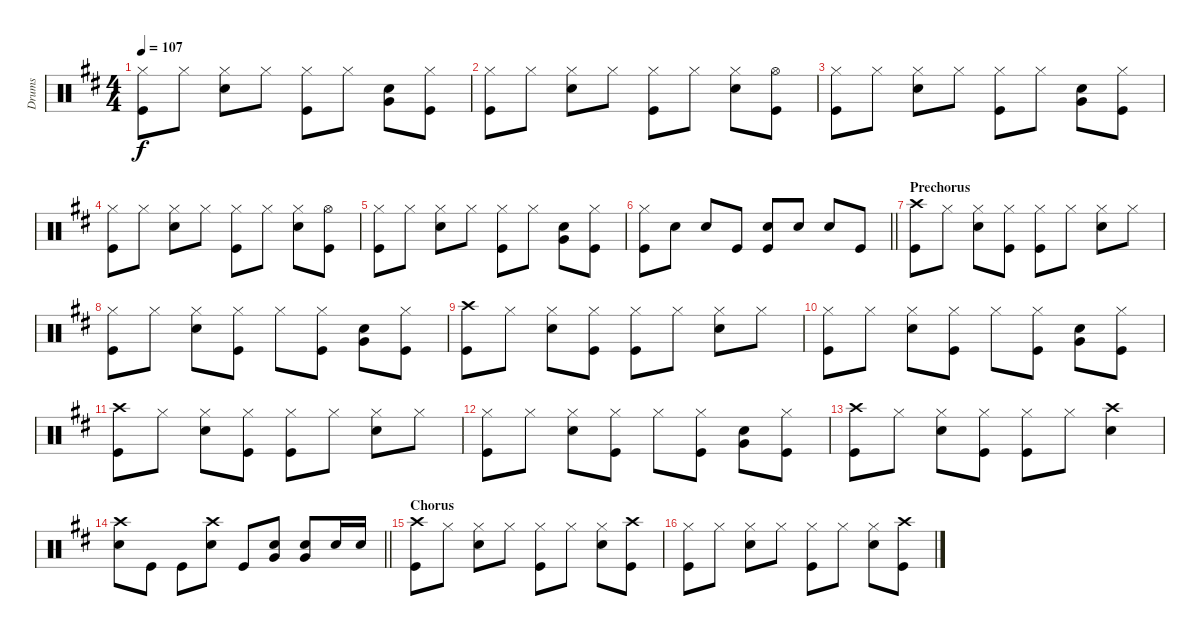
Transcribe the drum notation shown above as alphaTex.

\track ("Drums" "Drums") {instrument percussion}
\staff {score}
\articulation defaults
\ts (4 4)
\tempo 107
\clef neutral
\ks d
("Hi-Hat (closed)" "Kick (hit)").8{dy f} "Hi-Hat (closed)".8 ("Hi-Hat (closed)" "Snare (hit) 2").8 "Hi-Hat (closed)".8 ("Hi-Hat (closed)" "Kick (hit)").8 "Hi-Hat (closed)".8 ("Snare (hit) 2" "Very Low Tom (hit)").8 ("Hi-Hat (closed)" "Kick (hit)").8 |
("Hi-Hat (closed)" "Kick (hit)").8 "Hi-Hat (closed)".8 ("Hi-Hat (closed)" "Snare (hit) 2").8 "Hi-Hat (closed)".8 ("Hi-Hat (closed)" "Kick (hit)").8 "Hi-Hat (closed)".8 ("Hi-Hat (closed)" "Snare (hit) 2").8 ("Hi-Hat (open)" "Kick (hit)").8 |
("Hi-Hat (closed)" "Kick (hit)").8 "Hi-Hat (closed)".8 ("Hi-Hat (closed)" "Snare (hit) 2").8 "Hi-Hat (closed)".8 ("Hi-Hat (closed)" "Kick (hit)").8 "Hi-Hat (closed)".8 ("Snare (hit) 2" "Very Low Tom (hit)").8 ("Hi-Hat (closed)" "Kick (hit)").8 |
("Hi-Hat (closed)" "Kick (hit)").8 "Hi-Hat (closed)".8 ("Hi-Hat (closed)" "Snare (hit) 2").8 "Hi-Hat (closed)".8 ("Hi-Hat (closed)" "Kick (hit)").8 "Hi-Hat (closed)".8 ("Hi-Hat (closed)" "Snare (hit) 2").8 ("Hi-Hat (open)" "Kick (hit)").8 |
("Hi-Hat (closed)" "Kick (hit)").8 "Hi-Hat (closed)".8 ("Hi-Hat (closed)" "Snare (hit) 2").8 "Hi-Hat (closed)".8 ("Hi-Hat (closed)" "Kick (hit)").8 "Hi-Hat (closed)".8 ("Snare (hit) 2" "Very Low Tom (hit)").8 ("Hi-Hat (closed)" "Kick (hit)").8 |
\barLineRight lightlight
("Hi-Hat (closed)" "Kick (hit)").8 "Snare (hit) 2".8 "Snare (hit) 2".8 "Kick (hit)".8 ("Snare (hit) 2" "Kick (hit)").8 "Snare (hit) 2".8 "Snare (hit) 2".8 "Kick (hit)".8 |
\section ("" "Prechorus")
("Crash high (hit)" "Kick (hit)").8 "Hi-Hat (closed)".8 ("Hi-Hat (closed)" "Snare (hit) 2").8 ("Hi-Hat (closed)" "Kick (hit)").8 ("Hi-Hat (closed)" "Kick (hit)").8 "Hi-Hat (closed)".8 ("Hi-Hat (closed)" "Snare (hit) 2").8 "Hi-Hat (closed)".8 |
("Hi-Hat (closed)" "Kick (hit)").8 "Hi-Hat (closed)".8 ("Hi-Hat (closed)" "Snare (hit) 2").8 ("Hi-Hat (closed)" "Kick (hit)").8 "Hi-Hat (closed)".8 ("Hi-Hat (closed)" "Kick (hit)").8 ("Snare (hit) 2" "Very Low Tom (hit)").8 ("Hi-Hat (closed)" "Kick (hit)").8 |
("Crash high (hit)" "Kick (hit)").8 "Hi-Hat (closed)".8 ("Hi-Hat (closed)" "Snare (hit) 2").8 ("Hi-Hat (closed)" "Kick (hit)").8 ("Hi-Hat (closed)" "Kick (hit)").8 "Hi-Hat (closed)".8 ("Hi-Hat (closed)" "Snare (hit) 2").8 "Hi-Hat (closed)".8 |
("Hi-Hat (closed)" "Kick (hit)").8 "Hi-Hat (closed)".8 ("Hi-Hat (closed)" "Snare (hit) 2").8 ("Hi-Hat (closed)" "Kick (hit)").8 "Hi-Hat (closed)".8 ("Hi-Hat (closed)" "Kick (hit)").8 ("Snare (hit) 2" "Very Low Tom (hit)").8 ("Hi-Hat (closed)" "Kick (hit)").8 |
("Crash high (hit)" "Kick (hit)").8 "Hi-Hat (closed)".8 ("Hi-Hat (closed)" "Snare (hit) 2").8 ("Hi-Hat (closed)" "Kick (hit)").8 ("Hi-Hat (closed)" "Kick (hit)").8 "Hi-Hat (closed)".8 ("Hi-Hat (closed)" "Snare (hit) 2").8 "Hi-Hat (closed)".8 |
("Hi-Hat (closed)" "Kick (hit)").8 "Hi-Hat (closed)".8 ("Hi-Hat (closed)" "Snare (hit) 2").8 ("Hi-Hat (closed)" "Kick (hit)").8 "Hi-Hat (closed)".8 ("Hi-Hat (closed)" "Kick (hit)").8 ("Snare (hit) 2" "Very Low Tom (hit)").8 ("Hi-Hat (closed)" "Kick (hit)").8 |
("Crash high (hit)" "Kick (hit)").8 "Hi-Hat (closed)".8 ("Hi-Hat (closed)" "Snare (hit) 2").8 ("Hi-Hat (closed)" "Kick (hit)").8 ("Hi-Hat (closed)" "Kick (hit)").8 "Hi-Hat (closed)".8 ("Crash high (hit)" "Snare (hit) 2").4 |
\barLineRight lightlight
("Crash high (hit)" "Snare (hit) 2").8 "Kick (hit)".8 "Kick (hit)".8 ("Crash high (hit)" "Snare (hit) 2").8 "Kick (hit)".8 ("Snare (hit) 2" "Very Low Tom (hit)").8 ("Snare (hit) 2" "Very Low Tom (hit)").8 "Snare (hit) 2".16 "Snare (hit) 2".16 |
\section ("" "Chorus")
("Crash high (hit)" "Kick (hit)").8 "Hi-Hat (closed)".8 ("Hi-Hat (closed)" "Snare (hit) 2").8 "Hi-Hat (closed)".8 ("Hi-Hat (closed)" "Kick (hit)").8 "Hi-Hat (closed)".8 ("Hi-Hat (closed)" "Snare (hit) 2").8 ("Crash high (hit)" "Kick (hit)").8 |
("Hi-Hat (closed)" "Kick (hit)").8 "Hi-Hat (closed)".8 ("Hi-Hat (closed)" "Snare (hit) 2").8 "Hi-Hat (closed)".8 ("Hi-Hat (closed)" "Kick (hit)").8 "Hi-Hat (closed)".8 ("Hi-Hat (closed)" "Snare (hit) 2").8 ("Crash high (hit)" "Kick (hit)").8
